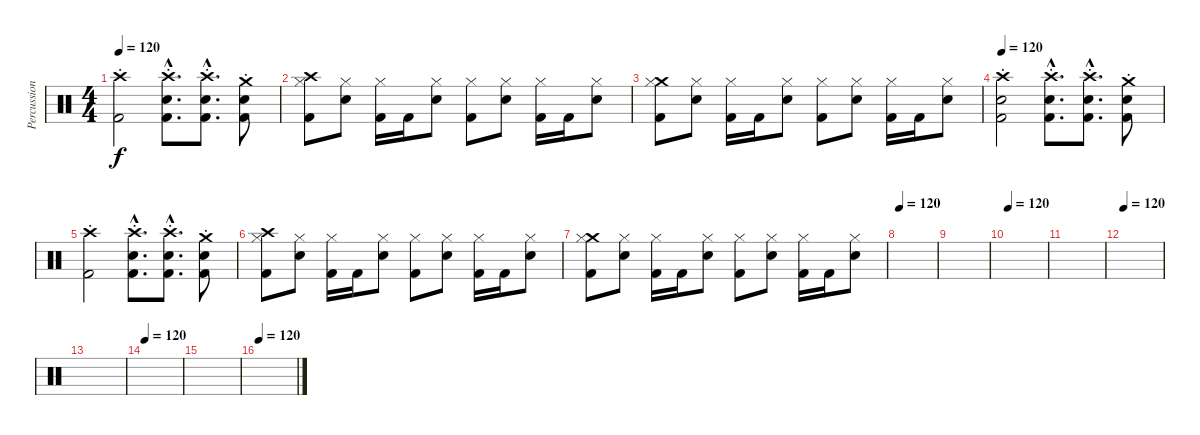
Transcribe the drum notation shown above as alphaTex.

\track ("Percussion" "Percussion") {instrument percussion}
\staff {score}
\articulation defaults
\ts (4 4)
\tempo 120
\clef neutral
\ks c
("Crash high (hit)"{st} "Kick (hit) 2").2{dy f} ("Crash high (hit)"{hac st} "Snare (hit) 2"{hac} "Kick (hit) 2"{hac}).8{d} ("Crash high (hit)"{hac st} "Snare (hit) 2"{hac} "Kick (hit) 2"{hac}).8{d} ("Crash medium (hit)"{st} "Snare (hit) 2" "Kick (hit) 2").8 |
("Crash high (hit)" "Hi-Hat (closed)" "Kick (hit) 2").8 ("Hi-Hat (closed)" "Snare (hit) 2").8 ("Hi-Hat (closed)" "Kick (hit) 2").16 "Kick (hit) 2".16 ("Hi-Hat (closed)" "Snare (hit) 2").8 ("Hi-Hat (closed)" "Kick (hit) 2").8 ("Hi-Hat (closed)" "Snare (hit) 2").8 ("Hi-Hat (closed)" "Kick (hit) 2").16 "Kick (hit) 2".16 ("Hi-Hat (closed)" "Snare (hit) 2").8 |
("Crash medium (hit)" "Hi-Hat (closed)" "Kick (hit) 2").8 ("Hi-Hat (closed)" "Snare (hit) 2").8 ("Hi-Hat (closed)" "Kick (hit) 2").16 "Kick (hit) 2".16 ("Hi-Hat (closed)" "Snare (hit) 2").8 ("Hi-Hat (closed)" "Kick (hit) 2").8 ("Hi-Hat (closed)" "Snare (hit) 2").8 ("Hi-Hat (closed)" "Kick (hit) 2").16 "Kick (hit) 2".16 ("Hi-Hat (closed)" "Snare (hit) 2").8 |
\tempo 120
("Crash high (hit)"{st} "Snare (hit) 2" "Kick (hit) 2").2 ("Crash high (hit)"{hac st} "Snare (hit) 2"{hac} "Kick (hit) 2"{hac}).8{d} ("Crash high (hit)"{hac st} "Snare (hit) 2"{hac} "Kick (hit) 2"{hac}).8{d} ("Crash medium (hit)"{st} "Snare (hit) 2" "Kick (hit) 2").8 |
("Crash high (hit)"{st} "Kick (hit) 2").2 ("Crash high (hit)"{hac st} "Snare (hit) 2"{hac} "Kick (hit) 2"{hac}).8{d} ("Crash high (hit)"{hac st} "Snare (hit) 2"{hac} "Kick (hit) 2"{hac}).8{d} ("Crash medium (hit)"{st} "Snare (hit) 2" "Kick (hit) 2").8 |
("Crash high (hit)" "Hi-Hat (closed)" "Kick (hit) 2").8 ("Hi-Hat (closed)" "Snare (hit) 2").8 ("Hi-Hat (closed)" "Kick (hit) 2").16 "Kick (hit) 2".16 ("Hi-Hat (closed)" "Snare (hit) 2").8 ("Hi-Hat (closed)" "Kick (hit) 2").8 ("Hi-Hat (closed)" "Snare (hit) 2").8 ("Hi-Hat (closed)" "Kick (hit) 2").16 "Kick (hit) 2".16 ("Hi-Hat (closed)" "Snare (hit) 2").8 |
("Crash medium (hit)" "Hi-Hat (closed)" "Kick (hit) 2").8 ("Hi-Hat (closed)" "Snare (hit) 2").8 ("Hi-Hat (closed)" "Kick (hit) 2").16 "Kick (hit) 2".16 ("Hi-Hat (closed)" "Snare (hit) 2").8 ("Hi-Hat (closed)" "Kick (hit) 2").8 ("Hi-Hat (closed)" "Snare (hit) 2").8 ("Hi-Hat (closed)" "Kick (hit) 2").16 "Kick (hit) 2".16 ("Hi-Hat (closed)" "Snare (hit) 2").8 |
\tempo 120
|
|
\tempo 120
|
|
\tempo 120
|
|
\tempo 120
|
|
\tempo 120
